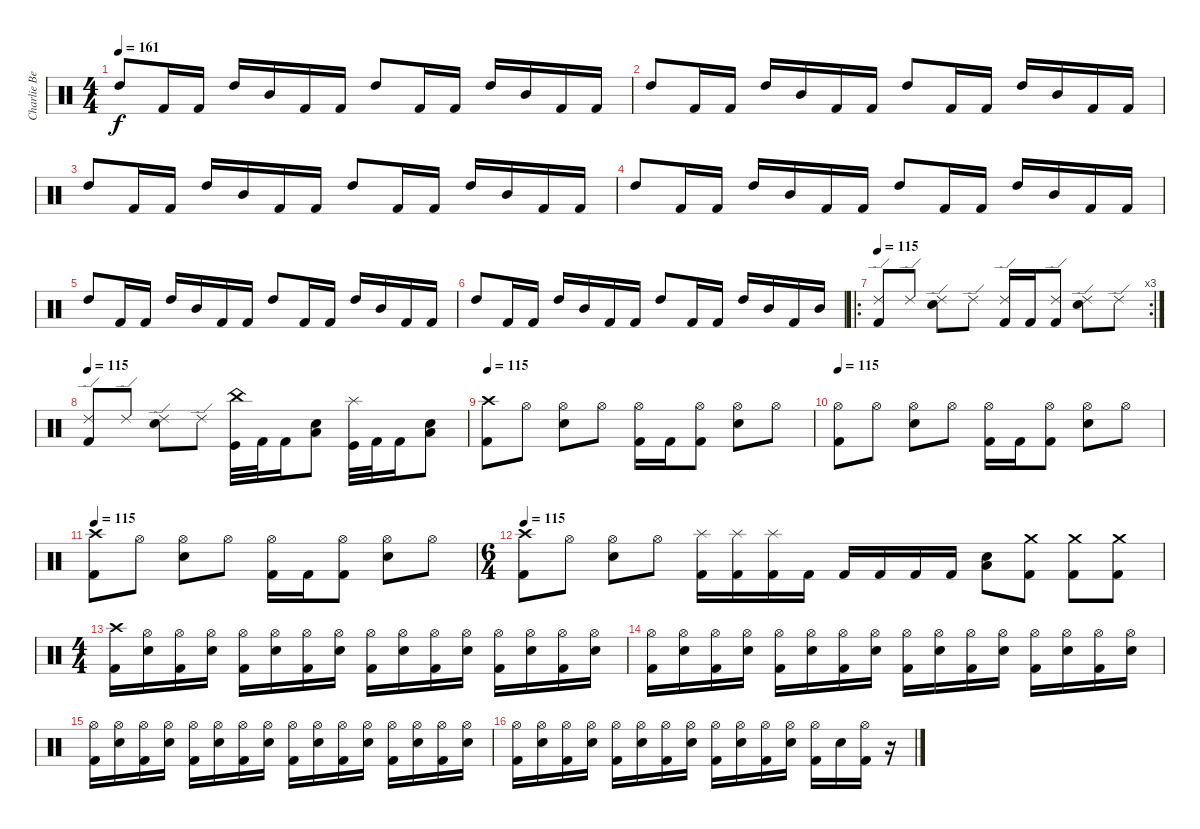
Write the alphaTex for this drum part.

\track ("Charlie Benante" "Charlie Be") {instrument percussion}
\staff {score}
\articulation defaults
\ts (4 4)
\tempo 161
\tempo 110
\tempo 161
\clef neutral
\ks c "High Tom (hit)".8{dy f} "Kick (hit) 2".16 "Kick (hit) 2".16 "High Tom (hit)".16 "Mid Tom (hit)".16 "Kick (hit) 2".16 "Kick (hit) 2".16 "High Tom (hit)".8 "Kick (hit) 2".16 "Kick (hit) 2".16 "High Tom (hit)".16 "Mid Tom (hit)".16 "Kick (hit) 2".16 "Kick (hit) 2".16
|
"High Tom (hit)".8 "Kick (hit) 2".16 "Kick (hit) 2".16 "High Tom (hit)".16 "Mid Tom (hit)".16 "Kick (hit) 2".16 "Kick (hit) 2".16 "High Tom (hit)".8 "Kick (hit) 2".16 "Kick (hit) 2".16 "High Tom (hit)".16 "Mid Tom (hit)".16 "Kick (hit) 2".16 "Kick (hit) 2".16 |
"High Tom (hit)".8 "Kick (hit) 2".16 "Kick (hit) 2".16 "High Tom (hit)".16 "Mid Tom (hit)".16 "Kick (hit) 2".16 "Kick (hit) 2".16 "High Tom (hit)".8 "Kick (hit) 2".16 "Kick (hit) 2".16 "High Tom (hit)".16 "Mid Tom (hit)".16 "Kick (hit) 2".16 "Kick (hit) 2".16 |
"High Tom (hit)".8 "Kick (hit) 2".16 "Kick (hit) 2".16 "High Tom (hit)".16 "Mid Tom (hit)".16 "Kick (hit) 2".16 "Kick (hit) 2".16 "High Tom (hit)".8 "Kick (hit) 2".16 "Kick (hit) 2".16 "High Tom (hit)".16 "Mid Tom (hit)".16 "Kick (hit) 2".16 "Kick (hit) 2".16 |
"High Tom (hit)".8 "Kick (hit) 2".16 "Kick (hit) 2".16 "High Tom (hit)".16 "Mid Tom (hit)".16 "Kick (hit) 2".16 "Kick (hit) 2".16 "High Tom (hit)".8 "Kick (hit) 2".16 "Kick (hit) 2".16 "High Tom (hit)".16 "Mid Tom (hit)".16 "Kick (hit) 2".16 "Kick (hit) 2".16 |
"High Tom (hit)".8 "Kick (hit) 2".16 "Kick (hit) 2".16 "High Tom (hit)".16 "Mid Tom (hit)".16 "Kick (hit) 2".16 "Kick (hit) 2".16 "High Tom (hit)".8 "Kick (hit) 2".16 "Kick (hit) 2".16 "High Tom (hit)".16 "Mid Tom (hit)".16 "Kick (hit) 2".16 "Mid Tom (hit)".16 |
\ro
\rc 3
\tempo 115
("Ride (edge) 2" "Kick (hit) 2").8 "Ride (edge) 2".8 ("Ride (edge) 2" "Electric Snare (hit)").8 "Ride (edge) 2".8 ("Ride (edge) 2" "Kick (hit) 2").16 "Kick (hit) 2".16 ("Ride (edge) 2" "Kick (hit) 2").8 ("Ride (edge) 2" "Electric Snare (hit)").8 "Ride (edge) 2".8 |
\tempo 115
("Ride (edge) 2" "Kick (hit) 2").8 "Ride (edge) 2".8 ("Ride (edge) 2" "Electric Snare (hit)").8 "Ride (edge) 2".8 ("China (hit)" "Kick (hit)").32 "Kick (hit) 2".32 "Kick (hit) 2".16 ("Low Floor Tom (hit)" "Electric Snare (hit)").8 ("Splash (hit)" "Kick (hit)").32 "Kick (hit) 2".32 "Kick (hit) 2".16 ("Low Floor Tom (hit)" "Electric Snare (hit)").8 |
\tempo 115
("Crash high (hit)" "Kick (hit) 2").8 "Hi-Hat (open)".8 ("Hi-Hat (open)" "Electric Snare (hit)").8 "Hi-Hat (open)".8 ("Hi-Hat (open)" "Kick (hit) 2").16 "Kick (hit) 2".16 ("Hi-Hat (open)" "Kick (hit) 2").8 ("Hi-Hat (open)" "Electric Snare (hit)").8 "Hi-Hat (open)".8 |
\tempo 115
("Hi-Hat (open)" "Kick (hit) 2").8 "Hi-Hat (open)".8 ("Hi-Hat (open)" "Electric Snare (hit)").8 "Hi-Hat (open)".8 ("Hi-Hat (open)" "Kick (hit) 2").16 "Kick (hit) 2".16 ("Hi-Hat (open)" "Kick (hit) 2").8 ("Hi-Hat (open)" "Electric Snare (hit)").8 "Hi-Hat (open)".8 |
\tempo 115
("Crash high (hit)" "Kick (hit) 2").8 "Hi-Hat (open)".8 ("Hi-Hat (open)" "Electric Snare (hit)").8 "Hi-Hat (open)".8 ("Hi-Hat (open)" "Kick (hit) 2").16 "Kick (hit) 2".16 ("Hi-Hat (open)" "Kick (hit) 2").8 ("Hi-Hat (open)" "Electric Snare (hit)").8 "Hi-Hat (open)".8 |
\ts (6 4)
\tempo 115
("Crash high (hit)" "Kick (hit) 2").8 "Hi-Hat (open)".8 ("Hi-Hat (open)" "Electric Snare (hit)").8 "Hi-Hat (open)".8 ("Splash (hit)" "Kick (hit) 2").16 ("Splash (hit)" "Kick (hit) 2").16 ("Splash (hit)" "Kick (hit) 2").16 "Kick (hit) 2".16 "Kick (hit) 2".16 "Kick (hit) 2".16 "Kick (hit) 2".16 "Kick (hit) 2".16 ("Low Floor Tom (hit)" "Electric Snare (hit)").8 ("Crash medium (hit)" "Kick (hit) 2").8 ("Crash medium (hit)" "Kick (hit) 2").8 ("Crash medium (hit)" "Kick (hit) 2").8 |
\ts (4 4)
("Crash high (hit)" "Kick (hit) 2").16 ("Hi-Hat (open)" "Electric Snare (hit)").16 ("Hi-Hat (open)" "Kick (hit) 2").16 ("Hi-Hat (open)" "Electric Snare (hit)").16 ("Hi-Hat (open)" "Kick (hit) 2").16 ("Hi-Hat (open)" "Electric Snare (hit)").16 ("Hi-Hat (open)" "Kick (hit) 2").16 ("Hi-Hat (open)" "Electric Snare (hit)").16 ("Hi-Hat (open)" "Kick (hit) 2").16 ("Hi-Hat (open)" "Electric Snare (hit)").16 ("Hi-Hat (open)" "Kick (hit) 2").16 ("Hi-Hat (open)" "Electric Snare (hit)").16 ("Hi-Hat (open)" "Kick (hit) 2").16 ("Hi-Hat (open)" "Electric Snare (hit)").16 ("Hi-Hat (open)" "Kick (hit) 2").16 ("Hi-Hat (open)" "Electric Snare (hit)").16 |
("Hi-Hat (open)" "Kick (hit) 2").16 ("Hi-Hat (open)" "Electric Snare (hit)").16 ("Hi-Hat (open)" "Kick (hit) 2").16 ("Hi-Hat (open)" "Electric Snare (hit)").16 ("Hi-Hat (open)" "Kick (hit) 2").16 ("Hi-Hat (open)" "Electric Snare (hit)").16 ("Hi-Hat (open)" "Kick (hit) 2").16 ("Hi-Hat (open)" "Electric Snare (hit)").16 ("Hi-Hat (open)" "Kick (hit) 2").16 ("Hi-Hat (open)" "Electric Snare (hit)").16 ("Hi-Hat (open)" "Kick (hit) 2").16 ("Hi-Hat (open)" "Electric Snare (hit)").16 ("Hi-Hat (open)" "Kick (hit) 2").16 ("Hi-Hat (open)" "Electric Snare (hit)").16 ("Hi-Hat (open)" "Kick (hit) 2").16 ("Hi-Hat (open)" "Electric Snare (hit)").16 |
("Hi-Hat (open)" "Kick (hit) 2").16 ("Hi-Hat (open)" "Electric Snare (hit)").16 ("Hi-Hat (open)" "Kick (hit) 2").16 ("Hi-Hat (open)" "Electric Snare (hit)").16 ("Hi-Hat (open)" "Kick (hit) 2").16 ("Hi-Hat (open)" "Electric Snare (hit)").16 ("Hi-Hat (open)" "Kick (hit) 2").16 ("Hi-Hat (open)" "Electric Snare (hit)").16 ("Hi-Hat (open)" "Kick (hit) 2").16 ("Hi-Hat (open)" "Electric Snare (hit)").16 ("Hi-Hat (open)" "Kick (hit) 2").16 ("Hi-Hat (open)" "Electric Snare (hit)").16 ("Hi-Hat (open)" "Kick (hit) 2").16 ("Hi-Hat (open)" "Electric Snare (hit)").16 ("Hi-Hat (open)" "Kick (hit) 2").16 ("Hi-Hat (open)" "Electric Snare (hit)").16 |
("Hi-Hat (open)" "Kick (hit) 2").16 ("Hi-Hat (open)" "Electric Snare (hit)").16 ("Hi-Hat (open)" "Kick (hit) 2").16 ("Hi-Hat (open)" "Electric Snare (hit)").16 ("Hi-Hat (open)" "Kick (hit) 2").16 ("Hi-Hat (open)" "Electric Snare (hit)").16 ("Hi-Hat (open)" "Kick (hit) 2").16 ("Hi-Hat (open)" "Electric Snare (hit)").16 ("Hi-Hat (open)" "Kick (hit) 2").16 ("Hi-Hat (open)" "Electric Snare (hit)").16 ("Hi-Hat (open)" "Kick (hit) 2").16 ("Hi-Hat (open)" "Electric Snare (hit)").16 ("Hi-Hat (open)" "Kick (hit) 2").16 "Electric Snare (hit)".16 ("Hi-Hat (open)" "Kick (hit) 2").16 r.16
